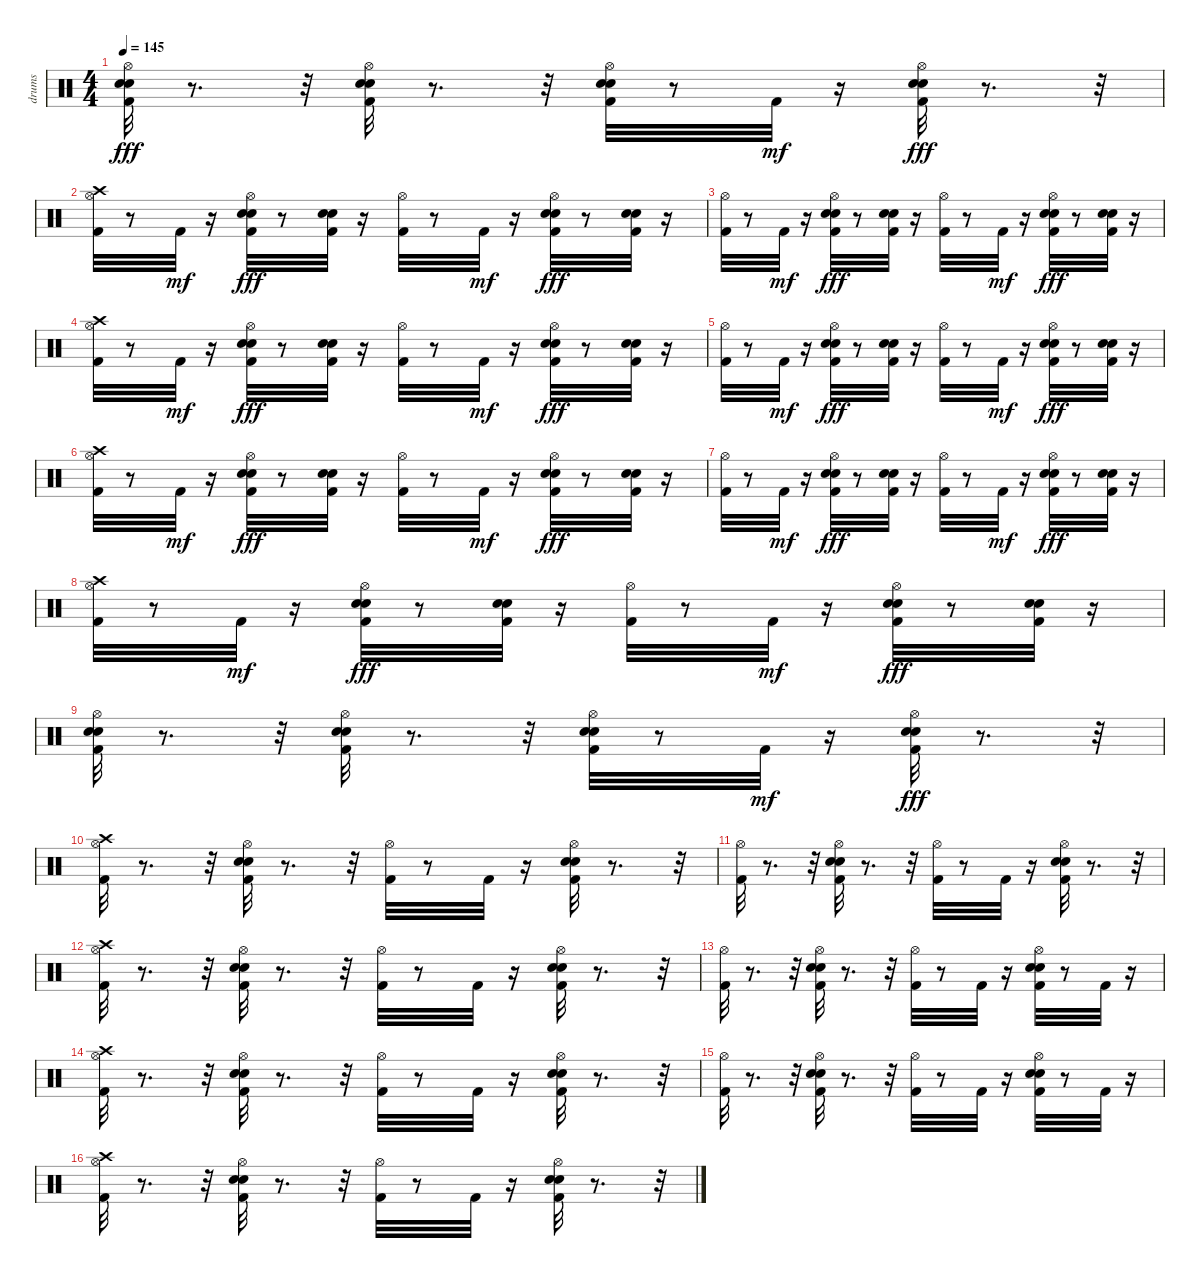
\track ("drums" "drums") {instrument percussion}
\staff {score}
\articulation defaults
\ts (4 4)
\tempo 145
\clef neutral
\ks c
("Hi-Hat (open)" "Kick (hit) 2" "Electric Snare (hit)" "Snare (hit) 2").32{dy fff} r.8{d} r.32 ("Kick (hit) 2" "Hi-Hat (open)" "Snare (hit) 2" "Electric Snare (hit)").32 r.8{d} r.32 ("Kick (hit) 2" "Hi-Hat (open)" "Snare (hit) 2" "Electric Snare (hit)").32 r.8 "Kick (hit) 2".32{dy mf} r.16 ("Kick (hit) 2" "Hi-Hat (open)" "Snare (hit) 2" "Electric Snare (hit)").32{dy fff} r.8{d} r.32 |
("Hi-Hat (open)" "Crash high (hit)" "Kick (hit) 2").32 r.8 "Kick (hit) 2".32{dy mf} r.16 ("Kick (hit) 2" "Hi-Hat (open)" "Snare (hit) 2" "Electric Snare (hit)").32{dy fff} r.8 ("Kick (hit) 2" "Snare (hit) 2" "Electric Snare (hit)").32 r.16 ("Kick (hit) 2" "Hi-Hat (open)").32 r.8 "Kick (hit) 2".32{dy mf} r.16 ("Kick (hit) 2" "Hi-Hat (open)" "Snare (hit) 2" "Electric Snare (hit)").32{dy fff} r.8 ("Kick (hit) 2" "Snare (hit) 2" "Electric Snare (hit)").32 r.16 |
("Hi-Hat (open)" "Kick (hit) 2").32 r.8 "Kick (hit) 2".32{dy mf} r.16 ("Kick (hit) 2" "Hi-Hat (open)" "Snare (hit) 2" "Electric Snare (hit)").32{dy fff} r.8 ("Kick (hit) 2" "Snare (hit) 2" "Electric Snare (hit)").32 r.16 ("Kick (hit) 2" "Hi-Hat (open)").32 r.8 "Kick (hit) 2".32{dy mf} r.16 ("Kick (hit) 2" "Hi-Hat (open)" "Snare (hit) 2" "Electric Snare (hit)").32{dy fff} r.8 ("Kick (hit) 2" "Snare (hit) 2" "Electric Snare (hit)").32 r.16 |
("Hi-Hat (open)" "Crash high (hit)" "Kick (hit) 2").32 r.8 "Kick (hit) 2".32{dy mf} r.16 ("Kick (hit) 2" "Hi-Hat (open)" "Snare (hit) 2" "Electric Snare (hit)").32{dy fff} r.8 ("Kick (hit) 2" "Snare (hit) 2" "Electric Snare (hit)").32 r.16 ("Kick (hit) 2" "Hi-Hat (open)").32 r.8 "Kick (hit) 2".32{dy mf} r.16 ("Kick (hit) 2" "Hi-Hat (open)" "Snare (hit) 2" "Electric Snare (hit)").32{dy fff} r.8 ("Kick (hit) 2" "Snare (hit) 2" "Electric Snare (hit)").32 r.16 |
("Hi-Hat (open)" "Kick (hit) 2").32 r.8 "Kick (hit) 2".32{dy mf} r.16 ("Kick (hit) 2" "Hi-Hat (open)" "Snare (hit) 2" "Electric Snare (hit)").32{dy fff} r.8 ("Kick (hit) 2" "Snare (hit) 2" "Electric Snare (hit)").32 r.16 ("Kick (hit) 2" "Hi-Hat (open)").32 r.8 "Kick (hit) 2".32{dy mf} r.16 ("Kick (hit) 2" "Hi-Hat (open)" "Snare (hit) 2" "Electric Snare (hit)").32{dy fff} r.8 ("Kick (hit) 2" "Snare (hit) 2" "Electric Snare (hit)").32 r.16 |
("Hi-Hat (open)" "Crash high (hit)" "Kick (hit) 2").32 r.8 "Kick (hit) 2".32{dy mf} r.16 ("Kick (hit) 2" "Hi-Hat (open)" "Snare (hit) 2" "Electric Snare (hit)").32{dy fff} r.8 ("Kick (hit) 2" "Snare (hit) 2" "Electric Snare (hit)").32 r.16 ("Kick (hit) 2" "Hi-Hat (open)").32 r.8 "Kick (hit) 2".32{dy mf} r.16 ("Kick (hit) 2" "Hi-Hat (open)" "Snare (hit) 2" "Electric Snare (hit)").32{dy fff} r.8 ("Kick (hit) 2" "Snare (hit) 2" "Electric Snare (hit)").32 r.16 |
("Hi-Hat (open)" "Kick (hit) 2").32 r.8 "Kick (hit) 2".32{dy mf} r.16 ("Kick (hit) 2" "Hi-Hat (open)" "Snare (hit) 2" "Electric Snare (hit)").32{dy fff} r.8 ("Kick (hit) 2" "Snare (hit) 2" "Electric Snare (hit)").32 r.16 ("Kick (hit) 2" "Hi-Hat (open)").32 r.8 "Kick (hit) 2".32{dy mf} r.16 ("Kick (hit) 2" "Hi-Hat (open)" "Snare (hit) 2" "Electric Snare (hit)").32{dy fff} r.8 ("Kick (hit) 2" "Snare (hit) 2" "Electric Snare (hit)").32 r.16 |
("Hi-Hat (open)" "Crash high (hit)" "Kick (hit) 2").32 r.8 "Kick (hit) 2".32{dy mf} r.16 ("Kick (hit) 2" "Hi-Hat (open)" "Snare (hit) 2" "Electric Snare (hit)").32{dy fff} r.8 ("Kick (hit) 2" "Snare (hit) 2" "Electric Snare (hit)").32 r.16 ("Kick (hit) 2" "Hi-Hat (open)").32 r.8 "Kick (hit) 2".32{dy mf} r.16 ("Kick (hit) 2" "Hi-Hat (open)" "Snare (hit) 2" "Electric Snare (hit)").32{dy fff} r.8 ("Kick (hit) 2" "Snare (hit) 2" "Electric Snare (hit)").32 r.16 |
("Hi-Hat (open)" "Kick (hit) 2" "Electric Snare (hit)" "Snare (hit) 2").32 r.8{d} r.32 ("Kick (hit) 2" "Hi-Hat (open)" "Snare (hit) 2" "Electric Snare (hit)").32 r.8{d} r.32 ("Kick (hit) 2" "Hi-Hat (open)" "Snare (hit) 2" "Electric Snare (hit)").32 r.8 "Kick (hit) 2".32{dy mf} r.16 ("Kick (hit) 2" "Hi-Hat (open)" "Snare (hit) 2" "Electric Snare (hit)").32{dy fff} r.8{d} r.32 |
("Crash high (hit)" "Hi-Hat (open)" "Kick (hit) 2").32 r.8{d} r.32 ("Hi-Hat (open)" "Kick (hit) 2" "Snare (hit) 2" "Electric Snare (hit)").32 r.8{d} r.32 ("Hi-Hat (open)" "Kick (hit) 2").32 r.8 "Kick (hit) 2".32 r.16 ("Hi-Hat (open)" "Kick (hit) 2" "Snare (hit) 2" "Electric Snare (hit)").32 r.8{d} r.32 |
("Kick (hit) 2" "Hi-Hat (open)").32 r.8{d} r.32 ("Hi-Hat (open)" "Kick (hit) 2" "Snare (hit) 2" "Electric Snare (hit)").32 r.8{d} r.32 ("Hi-Hat (open)" "Kick (hit) 2").32 r.8 "Kick (hit) 2".32 r.16 ("Hi-Hat (open)" "Kick (hit) 2" "Snare (hit) 2" "Electric Snare (hit)").32 r.8{d} r.32 |
("Kick (hit) 2" "Hi-Hat (open)" "Crash high (hit)").32 r.8{d} r.32 ("Hi-Hat (open)" "Kick (hit) 2" "Snare (hit) 2" "Electric Snare (hit)").32 r.8{d} r.32 ("Hi-Hat (open)" "Kick (hit) 2").32 r.8 "Kick (hit) 2".32 r.16 ("Hi-Hat (open)" "Kick (hit) 2" "Snare (hit) 2" "Electric Snare (hit)").32 r.8{d} r.32 |
("Kick (hit) 2" "Hi-Hat (open)").32 r.8{d} r.32 ("Hi-Hat (open)" "Kick (hit) 2" "Snare (hit) 2" "Electric Snare (hit)").32 r.8{d} r.32 ("Hi-Hat (open)" "Kick (hit) 2").32 r.8 "Kick (hit) 2".32 r.16 ("Hi-Hat (open)" "Kick (hit) 2" "Snare (hit) 2" "Electric Snare (hit)").32 r.8 "Kick (hit) 2".32 r.16 |
("Kick (hit) 2" "Hi-Hat (open)" "Crash high (hit)").32 r.8{d} r.32 ("Hi-Hat (open)" "Kick (hit) 2" "Snare (hit) 2" "Electric Snare (hit)").32 r.8{d} r.32 ("Hi-Hat (open)" "Kick (hit) 2").32 r.8 "Kick (hit) 2".32 r.16 ("Hi-Hat (open)" "Kick (hit) 2" "Snare (hit) 2" "Electric Snare (hit)").32 r.8{d} r.32 |
("Kick (hit) 2" "Hi-Hat (open)").32 r.8{d} r.32 ("Hi-Hat (open)" "Kick (hit) 2" "Snare (hit) 2" "Electric Snare (hit)").32 r.8{d} r.32 ("Hi-Hat (open)" "Kick (hit) 2").32 r.8 "Kick (hit) 2".32 r.16 ("Hi-Hat (open)" "Kick (hit) 2" "Snare (hit) 2" "Electric Snare (hit)").32 r.8 "Kick (hit) 2".32 r.16 |
("Kick (hit) 2" "Hi-Hat (open)" "Crash high (hit)").32 r.8{d} r.32 ("Hi-Hat (open)" "Kick (hit) 2" "Snare (hit) 2" "Electric Snare (hit)").32 r.8{d} r.32 ("Hi-Hat (open)" "Kick (hit) 2").32 r.8 "Kick (hit) 2".32 r.16 ("Hi-Hat (open)" "Kick (hit) 2" "Snare (hit) 2" "Electric Snare (hit)").32 r.8{d} r.32
